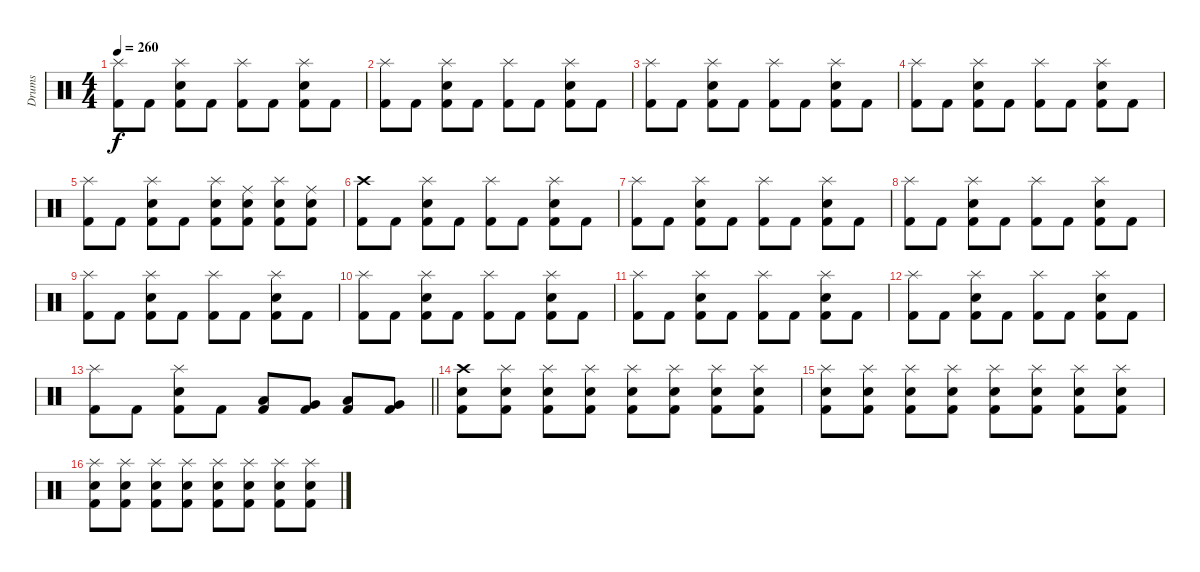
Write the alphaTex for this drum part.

\track ("Drums" "Drums") {instrument percussion}
\staff {score}
\articulation defaults
\ts (4 4)
\tempo 260
\clef neutral
\ks c
("Splash (hit)" "Kick (hit) 2").8{dy f} "Kick (hit) 2".8 ("Splash (hit)" "Electric Snare (hit)" "Kick (hit) 2").8 "Kick (hit) 2".8 ("Splash (hit)" "Kick (hit) 2").8 "Kick (hit) 2".8 ("Splash (hit)" "Electric Snare (hit)" "Kick (hit) 2").8 "Kick (hit) 2".8 |
("Splash (hit)" "Kick (hit) 2").8 "Kick (hit) 2".8 ("Splash (hit)" "Electric Snare (hit)" "Kick (hit) 2").8 "Kick (hit) 2".8 ("Splash (hit)" "Kick (hit) 2").8 "Kick (hit) 2".8 ("Splash (hit)" "Electric Snare (hit)" "Kick (hit) 2").8 "Kick (hit) 2".8 |
("Splash (hit)" "Kick (hit) 2").8 "Kick (hit) 2".8 ("Splash (hit)" "Electric Snare (hit)" "Kick (hit) 2").8 "Kick (hit) 2".8 ("Splash (hit)" "Kick (hit) 2").8 "Kick (hit) 2".8 ("Splash (hit)" "Electric Snare (hit)" "Kick (hit) 2").8 "Kick (hit) 2".8 |
("Splash (hit)" "Kick (hit) 2").8 "Kick (hit) 2".8 ("Splash (hit)" "Electric Snare (hit)" "Kick (hit) 2").8 "Kick (hit) 2".8 ("Splash (hit)" "Kick (hit) 2").8 "Kick (hit) 2".8 ("Splash (hit)" "Electric Snare (hit)" "Kick (hit) 2").8 "Kick (hit) 2".8 |
("Splash (hit)" "Kick (hit) 2").8 "Kick (hit) 2".8 ("Splash (hit)" "Electric Snare (hit)" "Kick (hit) 2").8 "Kick (hit) 2".8 ("Splash (hit)" "Electric Snare (hit)" "Kick (hit) 2").8 ("Ride (middle)" "Electric Snare (hit)" "Kick (hit) 2").8 ("Splash (hit)" "Electric Snare (hit)" "Kick (hit) 2").8 ("Ride (middle)" "Electric Snare (hit)" "Kick (hit) 2").8 |
("Crash high (hit)" "Kick (hit) 2").8 "Kick (hit) 2".8 ("Splash (hit)" "Electric Snare (hit)" "Kick (hit) 2").8 "Kick (hit) 2".8 ("Splash (hit)" "Kick (hit) 2").8 "Kick (hit) 2".8 ("Splash (hit)" "Electric Snare (hit)" "Kick (hit) 2").8 "Kick (hit) 2".8 |
("Splash (hit)" "Kick (hit) 2").8 "Kick (hit) 2".8 ("Splash (hit)" "Electric Snare (hit)" "Kick (hit) 2").8 "Kick (hit) 2".8 ("Splash (hit)" "Kick (hit) 2").8 "Kick (hit) 2".8 ("Splash (hit)" "Electric Snare (hit)" "Kick (hit) 2").8 "Kick (hit) 2".8 |
("Splash (hit)" "Kick (hit) 2").8 "Kick (hit) 2".8 ("Splash (hit)" "Electric Snare (hit)" "Kick (hit) 2").8 "Kick (hit) 2".8 ("Splash (hit)" "Kick (hit) 2").8 "Kick (hit) 2".8 ("Splash (hit)" "Electric Snare (hit)" "Kick (hit) 2").8 "Kick (hit) 2".8 |
("Splash (hit)" "Kick (hit) 2").8 "Kick (hit) 2".8 ("Splash (hit)" "Electric Snare (hit)" "Kick (hit) 2").8 "Kick (hit) 2".8 ("Splash (hit)" "Kick (hit) 2").8 "Kick (hit) 2".8 ("Splash (hit)" "Electric Snare (hit)" "Kick (hit) 2").8 "Kick (hit) 2".8 |
("Splash (hit)" "Kick (hit) 2").8 "Kick (hit) 2".8 ("Splash (hit)" "Electric Snare (hit)" "Kick (hit) 2").8 "Kick (hit) 2".8 ("Splash (hit)" "Kick (hit) 2").8 "Kick (hit) 2".8 ("Splash (hit)" "Electric Snare (hit)" "Kick (hit) 2").8 "Kick (hit) 2".8 |
("Splash (hit)" "Kick (hit) 2").8 "Kick (hit) 2".8 ("Splash (hit)" "Electric Snare (hit)" "Kick (hit) 2").8 "Kick (hit) 2".8 ("Splash (hit)" "Kick (hit) 2").8 "Kick (hit) 2".8 ("Splash (hit)" "Electric Snare (hit)" "Kick (hit) 2").8 "Kick (hit) 2".8 |
("Splash (hit)" "Kick (hit) 2").8 "Kick (hit) 2".8 ("Splash (hit)" "Electric Snare (hit)" "Kick (hit) 2").8 "Kick (hit) 2".8 ("Splash (hit)" "Kick (hit) 2").8 "Kick (hit) 2".8 ("Splash (hit)" "Electric Snare (hit)" "Kick (hit) 2").8 "Kick (hit) 2".8 |
\barLineRight lightlight
("Splash (hit)" "Kick (hit) 2").8 "Kick (hit) 2".8 ("Splash (hit)" "Electric Snare (hit)" "Kick (hit) 2").8 "Kick (hit) 2".8 ("Low Floor Tom (hit)" "Kick (hit) 2").8 ("Very Low Tom (hit)" "Kick (hit) 2").8 ("Low Floor Tom (hit)" "Kick (hit) 2").8 ("Very Low Tom (hit)" "Kick (hit) 2").8 |
("Crash high (hit)" "Electric Snare (hit)" "Kick (hit) 2").8 ("Splash (hit)" "Electric Snare (hit)" "Kick (hit) 2").8 ("Splash (hit)" "Electric Snare (hit)" "Kick (hit) 2").8 ("Splash (hit)" "Electric Snare (hit)" "Kick (hit) 2").8 ("Splash (hit)" "Electric Snare (hit)" "Kick (hit) 2").8 ("Splash (hit)" "Electric Snare (hit)" "Kick (hit) 2").8 ("Splash (hit)" "Electric Snare (hit)" "Kick (hit) 2").8 ("Splash (hit)" "Electric Snare (hit)" "Kick (hit) 2").8 |
("Splash (hit)" "Electric Snare (hit)" "Kick (hit) 2").8 ("Splash (hit)" "Electric Snare (hit)" "Kick (hit) 2").8 ("Splash (hit)" "Electric Snare (hit)" "Kick (hit) 2").8 ("Splash (hit)" "Electric Snare (hit)" "Kick (hit) 2").8 ("Splash (hit)" "Electric Snare (hit)" "Kick (hit) 2").8 ("Splash (hit)" "Electric Snare (hit)" "Kick (hit) 2").8 ("Splash (hit)" "Electric Snare (hit)" "Kick (hit) 2").8 ("Splash (hit)" "Electric Snare (hit)" "Kick (hit) 2").8 |
("Splash (hit)" "Electric Snare (hit)" "Kick (hit) 2").8 ("Splash (hit)" "Electric Snare (hit)" "Kick (hit) 2").8 ("Splash (hit)" "Electric Snare (hit)" "Kick (hit) 2").8 ("Splash (hit)" "Electric Snare (hit)" "Kick (hit) 2").8 ("Splash (hit)" "Electric Snare (hit)" "Kick (hit) 2").8 ("Splash (hit)" "Electric Snare (hit)" "Kick (hit) 2").8 ("Splash (hit)" "Electric Snare (hit)" "Kick (hit) 2").8 ("Splash (hit)" "Electric Snare (hit)" "Kick (hit) 2").8
